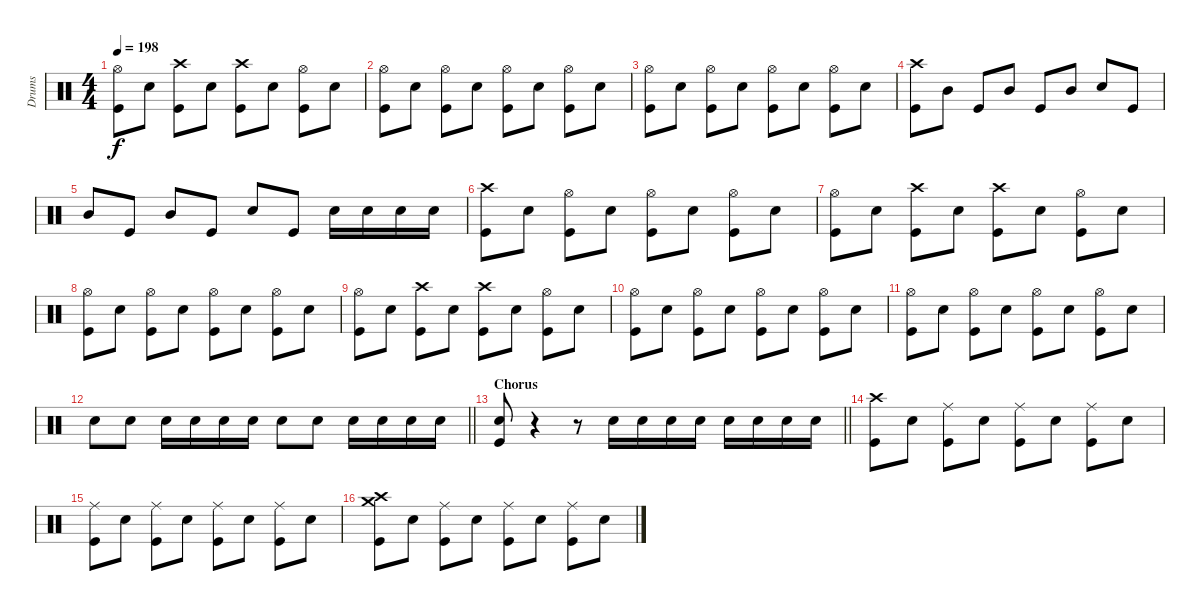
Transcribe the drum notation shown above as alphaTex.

\track ("Drums" "Drums") {instrument percussion}
\staff {score}
\articulation defaults
\ts (4 4)
\tempo 198
\clef neutral
\ks c
("Hi-Hat (open)" "Kick (hit)").8{dy f} "Electric Snare (hit)".8 ("Crash high (hit)" "Kick (hit)").8 "Electric Snare (hit)".8 ("Crash high (hit)" "Kick (hit)").8 "Electric Snare (hit)".8 ("Hi-Hat (open)" "Kick (hit)").8 "Electric Snare (hit)".8 |
("Hi-Hat (open)" "Kick (hit)").8 "Electric Snare (hit)".8 ("Hi-Hat (open)" "Kick (hit)").8 "Electric Snare (hit)".8 ("Hi-Hat (open)" "Kick (hit)").8 "Electric Snare (hit)".8 ("Hi-Hat (open)" "Kick (hit)").8 "Electric Snare (hit)".8 |
("Hi-Hat (open)" "Kick (hit)").8 "Electric Snare (hit)".8 ("Hi-Hat (open)" "Kick (hit)").8 "Electric Snare (hit)".8 ("Hi-Hat (open)" "Kick (hit)").8 "Electric Snare (hit)".8 ("Hi-Hat (open)" "Kick (hit)").8 "Electric Snare (hit)".8 |
("Crash high (hit)" "Kick (hit)").8 "Mid Tom (hit)".8 "Kick (hit)".8 "Mid Tom (hit)".8 "Kick (hit)".8 "Mid Tom (hit)".8 "Electric Snare (hit)".8 "Kick (hit)".8 |
"Mid Tom (hit)".8 "Kick (hit)".8 "Mid Tom (hit)".8 "Kick (hit)".8 "Electric Snare (hit)".8 "Kick (hit)".8 "Electric Snare (hit)".16 "Electric Snare (hit)".16 "Electric Snare (hit)".16 "Electric Snare (hit)".16 |
("Crash high (hit)" "Kick (hit)").8 "Electric Snare (hit)".8 ("Hi-Hat (open)" "Kick (hit)").8 "Electric Snare (hit)".8 ("Hi-Hat (open)" "Kick (hit)").8 "Electric Snare (hit)".8 ("Hi-Hat (open)" "Kick (hit)").8 "Electric Snare (hit)".8 |
("Hi-Hat (open)" "Kick (hit)").8 "Electric Snare (hit)".8 ("Crash high (hit)" "Kick (hit)").8 "Electric Snare (hit)".8 ("Crash high (hit)" "Kick (hit)").8 "Electric Snare (hit)".8 ("Hi-Hat (open)" "Kick (hit)").8 "Electric Snare (hit)".8 |
("Hi-Hat (open)" "Kick (hit)").8 "Electric Snare (hit)".8 ("Hi-Hat (open)" "Kick (hit)").8 "Electric Snare (hit)".8 ("Hi-Hat (open)" "Kick (hit)").8 "Electric Snare (hit)".8 ("Hi-Hat (open)" "Kick (hit)").8 "Electric Snare (hit)".8 |
("Hi-Hat (open)" "Kick (hit)").8 "Electric Snare (hit)".8 ("Crash high (hit)" "Kick (hit)").8 "Electric Snare (hit)".8 ("Crash high (hit)" "Kick (hit)").8 "Electric Snare (hit)".8 ("Hi-Hat (open)" "Kick (hit)").8 "Electric Snare (hit)".8 |
("Hi-Hat (open)" "Kick (hit)").8 "Electric Snare (hit)".8 ("Hi-Hat (open)" "Kick (hit)").8 "Electric Snare (hit)".8 ("Hi-Hat (open)" "Kick (hit)").8 "Electric Snare (hit)".8 ("Hi-Hat (open)" "Kick (hit)").8 "Electric Snare (hit)".8 |
("Hi-Hat (open)" "Kick (hit)").8 "Electric Snare (hit)".8 ("Hi-Hat (open)" "Kick (hit)").8 "Electric Snare (hit)".8 ("Hi-Hat (open)" "Kick (hit)").8 "Electric Snare (hit)".8 ("Hi-Hat (open)" "Kick (hit)").8 "Electric Snare (hit)".8 |
\barLineRight lightlight "Electric Snare (hit)".8 "Electric Snare (hit)".8 "Electric Snare (hit)".16 "Electric Snare (hit)".16 "Electric Snare (hit)".16 "Electric Snare (hit)".16 "Electric Snare (hit)".8 "Electric Snare (hit)".8 "Electric Snare (hit)".16 "Electric Snare (hit)".16 "Electric Snare (hit)".16 "Electric Snare (hit)".16
|
\section ("" "Chorus")
\barLineRight lightlight
("Electric Snare (hit)" "Kick (hit)").8 r.4 r.8 "Electric Snare (hit)".16 "Electric Snare (hit)".16 "Electric Snare (hit)".16 "Electric Snare (hit)".16 "Electric Snare (hit)".16 "Electric Snare (hit)".16 "Electric Snare (hit)".16 "Electric Snare (hit)".16 |
("Crash high (hit)" "Kick (hit)").8 "Electric Snare (hit)".8 ("Ride (middle)" "Kick (hit)").8 "Electric Snare (hit)".8 ("Ride (middle)" "Kick (hit)").8 "Electric Snare (hit)".8 ("Ride (middle)" "Kick (hit)").8 "Electric Snare (hit)".8 |
("Ride (middle)" "Kick (hit)").8 "Electric Snare (hit)".8 ("Ride (middle)" "Kick (hit)").8 "Electric Snare (hit)".8 ("Ride (middle)" "Kick (hit)").8 "Electric Snare (hit)".8 ("Ride (middle)" "Kick (hit)").8 "Electric Snare (hit)".8 |
("Crash high (hit)" "Crash medium (hit)" "Kick (hit)").8 "Electric Snare (hit)".8 ("Ride (middle)" "Kick (hit)").8 "Electric Snare (hit)".8 ("Ride (middle)" "Kick (hit)").8 "Electric Snare (hit)".8 ("Ride (middle)" "Kick (hit)").8 "Electric Snare (hit)".8
